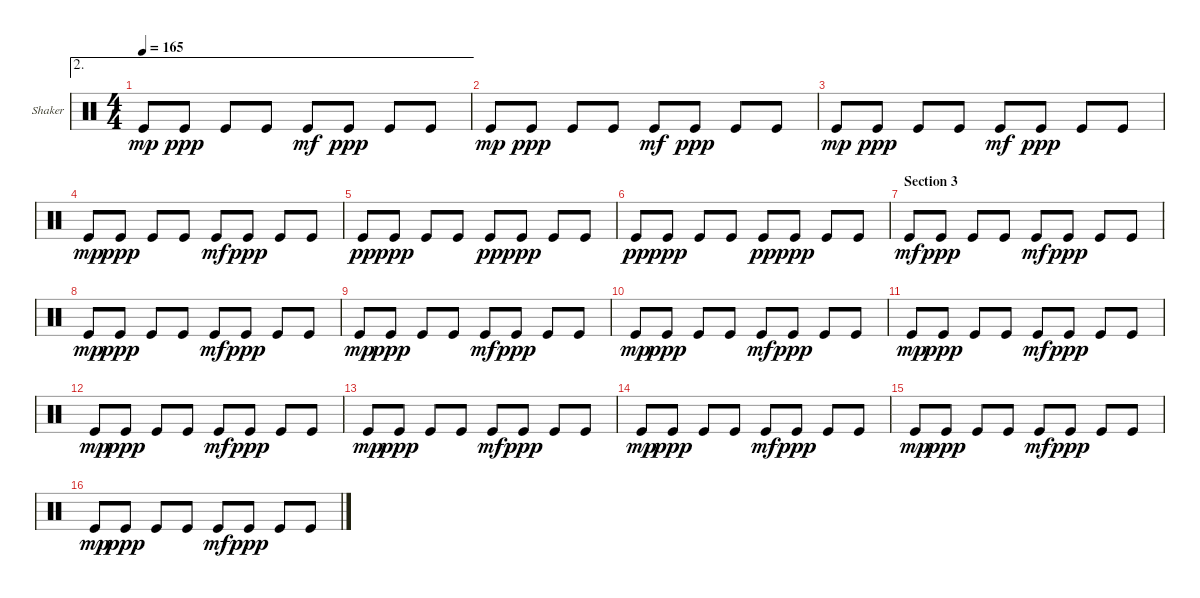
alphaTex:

\bracketExtendMode groupsimilarinstruments
\firstSystemTrackNameOrientation horizontal
\otherSystemsTrackNameOrientation horizontal
\track ("Shaker" "Shaker") {instrument percussion}
\staff {score}
\articulation defaults
\ae 2
\ts (4 4)
\tempo 165
\clef neutral
\ks c "Kick (hit)".8{dy mp} "Kick (hit)".8{dy ppp} "Kick (hit)".8 "Kick (hit)".8 "Kick (hit)".8{dy mf} "Kick (hit)".8{dy ppp} "Kick (hit)".8 "Kick (hit)".8
|
"Kick (hit)".8{dy mp} "Kick (hit)".8{dy ppp} "Kick (hit)".8 "Kick (hit)".8 "Kick (hit)".8{dy mf} "Kick (hit)".8{dy ppp} "Kick (hit)".8 "Kick (hit)".8 |
"Kick (hit)".8{dy mp} "Kick (hit)".8{dy ppp} "Kick (hit)".8 "Kick (hit)".8 "Kick (hit)".8{dy mf} "Kick (hit)".8{dy ppp} "Kick (hit)".8 "Kick (hit)".8 |
"Kick (hit)".8{dy mp} "Kick (hit)".8{dy ppp} "Kick (hit)".8 "Kick (hit)".8 "Kick (hit)".8{dy mf} "Kick (hit)".8{dy ppp} "Kick (hit)".8 "Kick (hit)".8 |
"Kick (hit)".8{dy pp} "Kick (hit)".8{dy ppp} "Kick (hit)".8 "Kick (hit)".8 "Kick (hit)".8{dy pp} "Kick (hit)".8{dy ppp} "Kick (hit)".8 "Kick (hit)".8 |
"Kick (hit)".8{dy pp} "Kick (hit)".8{dy ppp} "Kick (hit)".8 "Kick (hit)".8 "Kick (hit)".8{dy pp} "Kick (hit)".8{dy ppp} "Kick (hit)".8 "Kick (hit)".8 |
\section ("" "Section 3")
"Kick (hit)".8{dy mf} "Kick (hit)".8{dy ppp} "Kick (hit)".8 "Kick (hit)".8 "Kick (hit)".8{dy mf} "Kick (hit)".8{dy ppp} "Kick (hit)".8 "Kick (hit)".8 |
"Kick (hit)".8{dy mp} "Kick (hit)".8{dy ppp} "Kick (hit)".8 "Kick (hit)".8 "Kick (hit)".8{dy mf} "Kick (hit)".8{dy ppp} "Kick (hit)".8 "Kick (hit)".8 |
"Kick (hit)".8{dy mp} "Kick (hit)".8{dy ppp} "Kick (hit)".8 "Kick (hit)".8 "Kick (hit)".8{dy mf} "Kick (hit)".8{dy ppp} "Kick (hit)".8 "Kick (hit)".8 |
"Kick (hit)".8{dy mp} "Kick (hit)".8{dy ppp} "Kick (hit)".8 "Kick (hit)".8 "Kick (hit)".8{dy mf} "Kick (hit)".8{dy ppp} "Kick (hit)".8 "Kick (hit)".8 |
"Kick (hit)".8{dy mp} "Kick (hit)".8{dy ppp} "Kick (hit)".8 "Kick (hit)".8 "Kick (hit)".8{dy mf} "Kick (hit)".8{dy ppp} "Kick (hit)".8 "Kick (hit)".8 |
"Kick (hit)".8{dy mp} "Kick (hit)".8{dy ppp} "Kick (hit)".8 "Kick (hit)".8 "Kick (hit)".8{dy mf} "Kick (hit)".8{dy ppp} "Kick (hit)".8 "Kick (hit)".8 |
"Kick (hit)".8{dy mp} "Kick (hit)".8{dy ppp} "Kick (hit)".8 "Kick (hit)".8 "Kick (hit)".8{dy mf} "Kick (hit)".8{dy ppp} "Kick (hit)".8 "Kick (hit)".8 |
"Kick (hit)".8{dy mp} "Kick (hit)".8{dy ppp} "Kick (hit)".8 "Kick (hit)".8 "Kick (hit)".8{dy mf} "Kick (hit)".8{dy ppp} "Kick (hit)".8 "Kick (hit)".8 |
"Kick (hit)".8{dy mp} "Kick (hit)".8{dy ppp} "Kick (hit)".8 "Kick (hit)".8 "Kick (hit)".8{dy mf} "Kick (hit)".8{dy ppp} "Kick (hit)".8 "Kick (hit)".8 |
"Kick (hit)".8{dy mp} "Kick (hit)".8{dy ppp} "Kick (hit)".8 "Kick (hit)".8 "Kick (hit)".8{dy mf} "Kick (hit)".8{dy ppp} "Kick (hit)".8 "Kick (hit)".8
